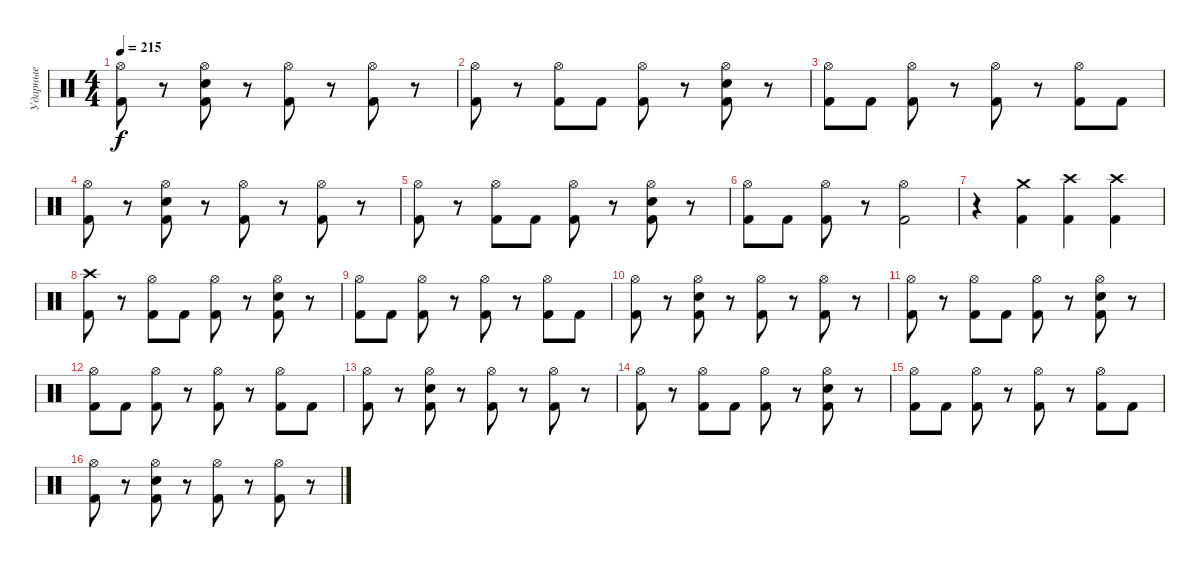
\track ("Ударные" "Ударные") {instrument percussion}
\staff {score}
\articulation defaults
\ts (4 4)
\tempo 215
\clef neutral
\ks c
("Hi-Hat (open)" "Kick (hit) 2").8{dy f} r.8 ("Hi-Hat (open)" "Snare (hit) 2" "Kick (hit) 2").8 r.8 ("Hi-Hat (open)" "Kick (hit) 2").8 r.8 ("Hi-Hat (open)" "Kick (hit) 2").8 r.8 |
("Hi-Hat (open)" "Kick (hit) 2").8 r.8 ("Hi-Hat (open)" "Kick (hit) 2").8 "Kick (hit) 2".8 ("Hi-Hat (open)" "Kick (hit) 2").8 r.8 ("Hi-Hat (open)" "Snare (hit) 2" "Kick (hit) 2").8 r.8 |
("Hi-Hat (open)" "Kick (hit) 2").8 "Kick (hit) 2".8 ("Hi-Hat (open)" "Kick (hit) 2").8 r.8 ("Hi-Hat (open)" "Kick (hit) 2").8 r.8 ("Hi-Hat (open)" "Kick (hit) 2").8 "Kick (hit) 2".8 |
("Hi-Hat (open)" "Kick (hit) 2").8 r.8 ("Hi-Hat (open)" "Snare (hit) 2" "Kick (hit) 2").8 r.8 ("Hi-Hat (open)" "Kick (hit) 2").8 r.8 ("Hi-Hat (open)" "Kick (hit) 2").8 r.8 |
("Hi-Hat (open)" "Kick (hit) 2").8 r.8 ("Hi-Hat (open)" "Kick (hit) 2").8 "Kick (hit) 2".8 ("Hi-Hat (open)" "Kick (hit) 2").8 r.8 ("Hi-Hat (open)" "Snare (hit) 2" "Kick (hit) 2").8 r.8 |
("Hi-Hat (open)" "Kick (hit) 2").8 "Kick (hit) 2".8 ("Hi-Hat (open)" "Kick (hit) 2").8 r.8 ("Hi-Hat (open)" "Kick (hit) 2").2 |
r.4 ("Crash medium (hit)" "Kick (hit) 2").4 ("Crash high (hit)" "Kick (hit) 2").4 ("Crash high (hit)" "Kick (hit) 2").4 |
("Crash high (hit)" "Kick (hit) 2").8 r.8 ("Hi-Hat (open)" "Kick (hit) 2").8 "Kick (hit) 2".8 ("Hi-Hat (open)" "Kick (hit) 2").8 r.8 ("Hi-Hat (open)" "Snare (hit) 2" "Kick (hit) 2").8 r.8 |
("Hi-Hat (open)" "Kick (hit) 2").8 "Kick (hit) 2".8 ("Hi-Hat (open)" "Kick (hit) 2").8 r.8 ("Hi-Hat (open)" "Kick (hit) 2").8 r.8 ("Hi-Hat (open)" "Kick (hit) 2").8 "Kick (hit) 2".8 |
("Hi-Hat (open)" "Kick (hit) 2").8 r.8 ("Hi-Hat (open)" "Snare (hit) 2" "Kick (hit) 2").8 r.8 ("Hi-Hat (open)" "Kick (hit) 2").8 r.8 ("Hi-Hat (open)" "Kick (hit) 2").8 r.8 |
("Hi-Hat (open)" "Kick (hit) 2").8 r.8 ("Hi-Hat (open)" "Kick (hit) 2").8 "Kick (hit) 2".8 ("Hi-Hat (open)" "Kick (hit) 2").8 r.8 ("Hi-Hat (open)" "Snare (hit) 2" "Kick (hit) 2").8 r.8 |
("Hi-Hat (open)" "Kick (hit) 2").8 "Kick (hit) 2".8 ("Hi-Hat (open)" "Kick (hit) 2").8 r.8 ("Hi-Hat (open)" "Kick (hit) 2").8 r.8 ("Hi-Hat (open)" "Kick (hit) 2").8 "Kick (hit) 2".8 |
("Hi-Hat (open)" "Kick (hit) 2").8 r.8 ("Hi-Hat (open)" "Snare (hit) 2" "Kick (hit) 2").8 r.8 ("Hi-Hat (open)" "Kick (hit) 2").8 r.8 ("Hi-Hat (open)" "Kick (hit) 2").8 r.8 |
("Hi-Hat (open)" "Kick (hit) 2").8 r.8 ("Hi-Hat (open)" "Kick (hit) 2").8 "Kick (hit) 2".8 ("Hi-Hat (open)" "Kick (hit) 2").8 r.8 ("Hi-Hat (open)" "Snare (hit) 2" "Kick (hit) 2").8 r.8 |
("Hi-Hat (open)" "Kick (hit) 2").8 "Kick (hit) 2".8 ("Hi-Hat (open)" "Kick (hit) 2").8 r.8 ("Hi-Hat (open)" "Kick (hit) 2").8 r.8 ("Hi-Hat (open)" "Kick (hit) 2").8 "Kick (hit) 2".8 |
("Hi-Hat (open)" "Kick (hit) 2").8 r.8 ("Hi-Hat (open)" "Snare (hit) 2" "Kick (hit) 2").8 r.8 ("Hi-Hat (open)" "Kick (hit) 2").8 r.8 ("Hi-Hat (open)" "Kick (hit) 2").8 r.8
